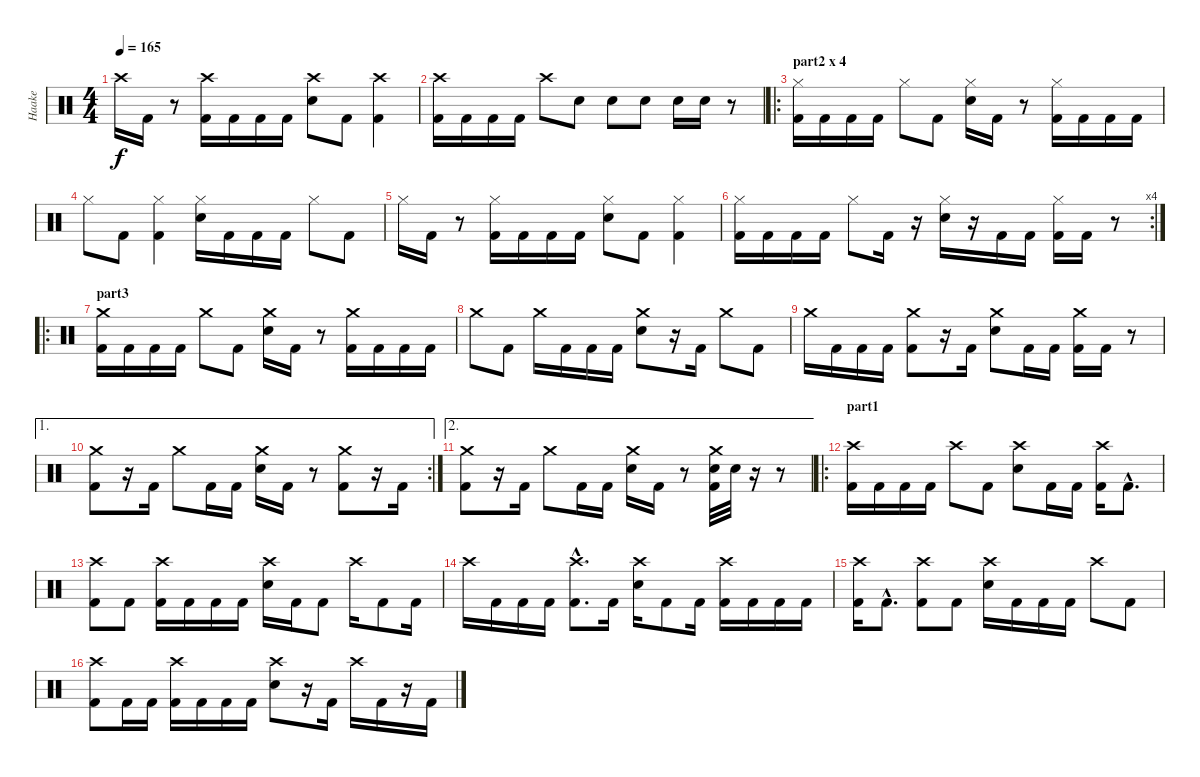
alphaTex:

\track ("Haake" "Haake") {instrument percussion}
\staff {score}
\articulation defaults
\ts (4 4)
\tempo 165
\clef neutral
\ks c "Crash high (hit)".16{dy f} "Kick (hit) 2".16
r.8 ("Crash high (hit)" "Kick (hit) 2").16 "Kick (hit) 2".16 "Kick (hit) 2".16 "Kick (hit) 2".16 ("Crash high (hit)" "Electric Snare (hit)").8 "Kick (hit) 2".8 ("Crash high (hit)" "Kick (hit) 2").4 |
("Crash high (hit)" "Kick (hit) 2").16 "Kick (hit) 2".16 "Kick (hit) 2".16 "Kick (hit) 2".16 "Crash high (hit)".8 "Electric Snare (hit)".8 "Electric Snare (hit)".8 "Electric Snare (hit)".8 "Electric Snare (hit)".16 "Electric Snare (hit)".16 r.8 |
\ro
\section ("" "part2 x 4")
("Hi-Hat (closed)" "Kick (hit) 2").16 "Kick (hit) 2".16 "Kick (hit) 2".16 "Kick (hit) 2".16 "Hi-Hat (closed)".8 "Kick (hit) 2".8 ("Hi-Hat (closed)" "Electric Snare (hit)").16 "Kick (hit) 2".16 r.8 ("Hi-Hat (closed)" "Kick (hit) 2").16 "Kick (hit) 2".16 "Kick (hit) 2".16 "Kick (hit) 2".16 |
"Hi-Hat (closed)".8 "Kick (hit) 2".8 ("Hi-Hat (closed)" "Kick (hit) 2").4 ("Hi-Hat (closed)" "Electric Snare (hit)").16 "Kick (hit) 2".16 "Kick (hit) 2".16 "Kick (hit) 2".16 "Hi-Hat (closed)".8 "Kick (hit) 2".8 |
"Hi-Hat (closed)".16 "Kick (hit) 2".16 r.8 ("Hi-Hat (closed)" "Kick (hit) 2").16 "Kick (hit) 2".16 "Kick (hit) 2".16 "Kick (hit) 2".16 ("Hi-Hat (closed)" "Electric Snare (hit)").8 "Kick (hit) 2".8 ("Hi-Hat (closed)" "Kick (hit) 2").4 |
\rc 4
("Hi-Hat (closed)" "Kick (hit) 2").16 "Kick (hit) 2".16 "Kick (hit) 2".16 "Kick (hit) 2".16 "Hi-Hat (closed)".8 "Kick (hit) 2".16 r.16 ("Hi-Hat (closed)" "Electric Snare (hit)").16 r.16 "Kick (hit) 2".16 "Kick (hit) 2".16 ("Hi-Hat (closed)" "Kick (hit) 2").16 "Kick (hit) 2".16 r.8 |
\ro
\section ("" "part3")
("Crash medium (hit)" "Kick (hit) 2").16 "Kick (hit) 2".16 "Kick (hit) 2".16 "Kick (hit) 2".16 "Crash medium (hit)".8 "Kick (hit) 2".8 ("Crash medium (hit)" "Electric Snare (hit)").16 "Kick (hit) 2".16 r.8 ("Crash medium (hit)" "Kick (hit) 2").16 "Kick (hit) 2".16 "Kick (hit) 2".16 "Kick (hit) 2".16 |
"Crash medium (hit)".8 "Kick (hit) 2".8 "Crash medium (hit)".16 "Kick (hit) 2".16 "Kick (hit) 2".16 "Kick (hit) 2".16 ("Crash medium (hit)" "Electric Snare (hit)").8 r.16 "Kick (hit) 2".16 "Crash medium (hit)".8 "Kick (hit) 2".8 |
"Crash medium (hit)".16 "Kick (hit) 2".16 "Kick (hit) 2".16 "Kick (hit) 2".16 ("Crash medium (hit)" "Kick (hit) 2").8 r.16 "Kick (hit) 2".16 ("Crash medium (hit)" "Electric Snare (hit)").8 "Kick (hit) 2".16 "Kick (hit) 2".16 ("Crash medium (hit)" "Kick (hit) 2").16 "Kick (hit) 2".16 r.8 |
\ae 1
\rc 2
("Crash medium (hit)" "Kick (hit) 2").8 r.16 "Kick (hit) 2".16 "Crash medium (hit)".8 "Kick (hit) 2".16 "Kick (hit) 2".16 ("Crash medium (hit)" "Electric Snare (hit)").16 "Kick (hit) 2".16 r.8 ("Crash medium (hit)" "Kick (hit) 2").8 r.16 "Kick (hit) 2".16 |
\ae 2
("Crash medium (hit)" "Kick (hit) 2").8 r.16 "Kick (hit) 2".16 "Crash medium (hit)".8 "Kick (hit) 2".16 "Kick (hit) 2".16 ("Crash medium (hit)" "Electric Snare (hit)").16 "Kick (hit) 2".16 r.8 ("Crash medium (hit)" "Electric Snare (hit)" "Kick (hit) 2").32 "Electric Snare (hit)".32 r.16 r.8 |
\ro
\section ("" "part1")
("Crash high (hit)" "Kick (hit) 2").16 "Kick (hit) 2".16 "Kick (hit) 2".16 "Kick (hit) 2".16 "Crash high (hit)".8 "Kick (hit) 2".8 ("Crash high (hit)" "Electric Snare (hit)").8 "Kick (hit) 2".16 "Kick (hit) 2".16 ("Crash high (hit)" "Kick (hit) 2").16 "Kick (hit) 2"{hac}.8{d} |
("Crash high (hit)" "Kick (hit) 2").8 "Kick (hit) 2".8 ("Crash high (hit)" "Kick (hit) 2").16 "Kick (hit) 2".16 "Kick (hit) 2".16 "Kick (hit) 2".16 ("Crash high (hit)" "Electric Snare (hit)").16 "Kick (hit) 2".16 "Kick (hit) 2".8 "Crash high (hit)".16 "Kick (hit) 2".8 "Kick (hit) 2".16 |
"Crash high (hit)".16 "Kick (hit) 2".16 "Kick (hit) 2".16 "Kick (hit) 2".16 ("Crash high (hit)"{hac} "Kick (hit) 2"{hac}).8{d} "Kick (hit) 2".16 ("Crash high (hit)" "Electric Snare (hit)").16 "Kick (hit) 2".8 "Kick (hit) 2".16 ("Crash high (hit)" "Kick (hit) 2").16 "Kick (hit) 2".16 "Kick (hit) 2".16 "Kick (hit) 2".16 |
("Crash high (hit)" "Kick (hit) 2").16 "Kick (hit) 2"{hac}.8{d} ("Crash high (hit)" "Kick (hit) 2").8 "Kick (hit) 2".8 ("Crash high (hit)" "Electric Snare (hit)").16 "Kick (hit) 2".16 "Kick (hit) 2".16 "Kick (hit) 2".16 "Crash high (hit)".8 "Kick (hit) 2".8 |
("Crash high (hit)" "Kick (hit) 2").8 "Kick (hit) 2".16 "Kick (hit) 2".16 ("Crash high (hit)" "Kick (hit) 2").16 "Kick (hit) 2".16 "Kick (hit) 2".16 "Kick (hit) 2".16 ("Crash high (hit)" "Electric Snare (hit)").8 r.16 "Kick (hit) 2".16 "Crash high (hit)".16 "Kick (hit) 2".16 r.16 "Kick (hit) 2".16
